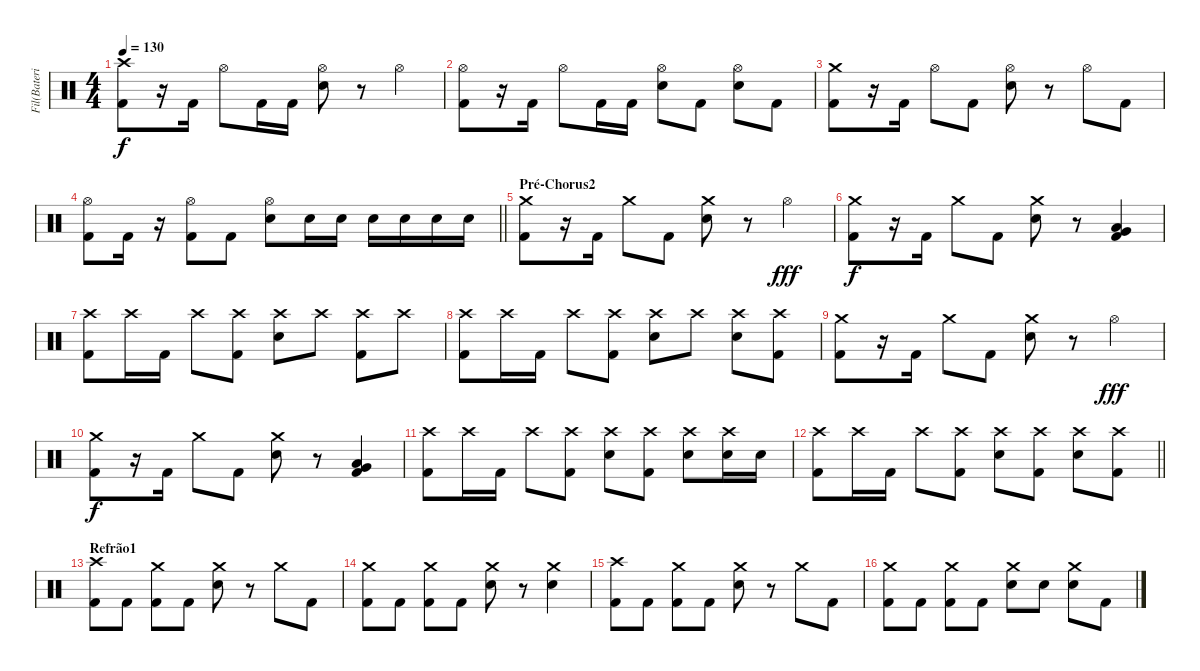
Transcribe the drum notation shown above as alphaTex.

\track ("Fil(Bateria)" "Fil(Bateri") {instrument percussion}
\staff {score}
\articulation defaults
\ts (4 4)
\tempo 130
\clef neutral
\ks c
("Crash high (hit)" "Kick (hit) 2").8{dy f} r.16 "Kick (hit) 2".16 "Hi-Hat (open)".8 "Kick (hit) 2".16 "Kick (hit) 2".16 ("Hi-Hat (open)" "Electric Snare (hit)").8 r.8 "Hi-Hat (open)".4 |
("Hi-Hat (open)" "Kick (hit) 2").8 r.16 "Kick (hit) 2".16 "Hi-Hat (open)".8 "Kick (hit) 2".16 "Kick (hit) 2".16 ("Hi-Hat (open)" "Electric Snare (hit)").8 "Kick (hit) 2".8 ("Hi-Hat (open)" "Electric Snare (hit)").8 "Kick (hit) 2".8 |
("Crash medium (hit)" "Kick (hit) 2").8 r.16 "Kick (hit) 2".16 "Hi-Hat (open)".8 "Kick (hit) 2".8 ("Hi-Hat (open)" "Electric Snare (hit)").8 r.8 "Hi-Hat (open)".8 "Kick (hit) 2".8 |
\barLineRight lightlight
("Hi-Hat (open)" "Kick (hit) 2").8 "Kick (hit) 2".16 r.16 ("Hi-Hat (open)" "Kick (hit) 2").8 "Kick (hit) 2".8 ("Hi-Hat (open)" "Electric Snare (hit)").8 "Electric Snare (hit)".16 "Electric Snare (hit)".16 "Electric Snare (hit)".16 "Electric Snare (hit)".16 "Electric Snare (hit)".16 "Electric Snare (hit)".16 |
\section ("" "Pré-Chorus2")
("Crash medium (hit)" "Kick (hit) 2").8 r.16 "Kick (hit) 2".16 "Crash medium (hit)".8 "Kick (hit) 2".8 ("Crash medium (hit)" "Electric Snare (hit)").8 r.8 "Hi-Hat (open)".4{dy fff} |
("Crash medium (hit)" "Kick (hit) 2").8{dy f} r.16 "Kick (hit) 2".16 "Crash medium (hit)".8 "Kick (hit) 2".8 ("Crash medium (hit)" "Electric Snare (hit)").8 r.8 ("Very Low Tom (hit)" "Low Floor Tom (hit)" "Kick (hit) 2").4 |
("Crash high (hit)" "Kick (hit) 2").8 "Crash high (hit)".16 "Kick (hit) 2".16 "Crash high (hit)".8 ("Crash high (hit)" "Kick (hit) 2").8 ("Crash high (hit)" "Electric Snare (hit)").8 "Crash high (hit)".8 ("Crash high (hit)" "Kick (hit) 2").8 "Crash high (hit)".8 |
("Crash high (hit)" "Kick (hit) 2").8 "Crash high (hit)".16 "Kick (hit) 2".16 "Crash high (hit)".8 ("Crash high (hit)" "Kick (hit) 2").8 ("Crash high (hit)" "Electric Snare (hit)").8 "Crash high (hit)".8 ("Crash high (hit)" "Electric Snare (hit)").8 ("Crash high (hit)" "Kick (hit) 2").8 |
("Crash medium (hit)" "Kick (hit) 2").8 r.16 "Kick (hit) 2".16 "Crash medium (hit)".8 "Kick (hit) 2".8 ("Crash medium (hit)" "Electric Snare (hit)").8 r.8 "Hi-Hat (open)".4{dy fff} |
("Crash medium (hit)" "Kick (hit) 2").8{dy f} r.16 "Kick (hit) 2".16 "Crash medium (hit)".8 "Kick (hit) 2".8 ("Crash medium (hit)" "Electric Snare (hit)").8 r.8 ("Very Low Tom (hit)" "Low Floor Tom (hit)" "Kick (hit) 2").4 |
("Crash high (hit)" "Kick (hit) 2").8 "Crash high (hit)".16 "Kick (hit) 2".16 "Crash high (hit)".8 ("Crash high (hit)" "Kick (hit) 2").8 ("Crash high (hit)" "Electric Snare (hit)").8 ("Crash high (hit)" "Kick (hit) 2").8 ("Crash high (hit)" "Electric Snare (hit)").8 ("Crash high (hit)" "Electric Snare (hit)").16 "Electric Snare (hit)".16 |
\barLineRight lightlight
("Crash high (hit)" "Kick (hit) 2").8 "Crash high (hit)".16 "Kick (hit) 2".16 "Crash high (hit)".8 ("Crash high (hit)" "Kick (hit) 2").8 ("Crash high (hit)" "Electric Snare (hit)").8 ("Crash high (hit)" "Kick (hit) 2").8 ("Crash high (hit)" "Electric Snare (hit)").8 ("Crash high (hit)" "Kick (hit) 2").8 |
\section ("" "Refrão1")
("Crash high (hit)" "Kick (hit) 2").8 "Kick (hit) 2".8 ("Crash medium (hit)" "Kick (hit) 2").8 "Kick (hit) 2".8 ("Crash medium (hit)" "Electric Snare (hit)").8 r.8 "Crash medium (hit)".8 "Kick (hit) 2".8 |
("Crash medium (hit)" "Kick (hit) 2").8 "Kick (hit) 2".8 ("Crash medium (hit)" "Kick (hit) 2").8 "Kick (hit) 2".8 ("Crash medium (hit)" "Electric Snare (hit)").8 r.8 ("Crash medium (hit)" "Electric Snare (hit)").4 |
("Crash high (hit)" "Kick (hit) 2").8 "Kick (hit) 2".8 ("Crash medium (hit)" "Kick (hit) 2").8 "Kick (hit) 2".8 ("Crash medium (hit)" "Electric Snare (hit)").8 r.8 "Crash medium (hit)".8 "Kick (hit) 2".8 |
("Crash medium (hit)" "Kick (hit) 2").8 "Kick (hit) 2".8 ("Crash medium (hit)" "Kick (hit) 2").8 "Kick (hit) 2".8 ("Crash medium (hit)" "Electric Snare (hit)").8 "Electric Snare (hit)".8 ("Crash medium (hit)" "Electric Snare (hit)").8 "Kick (hit) 2".8
